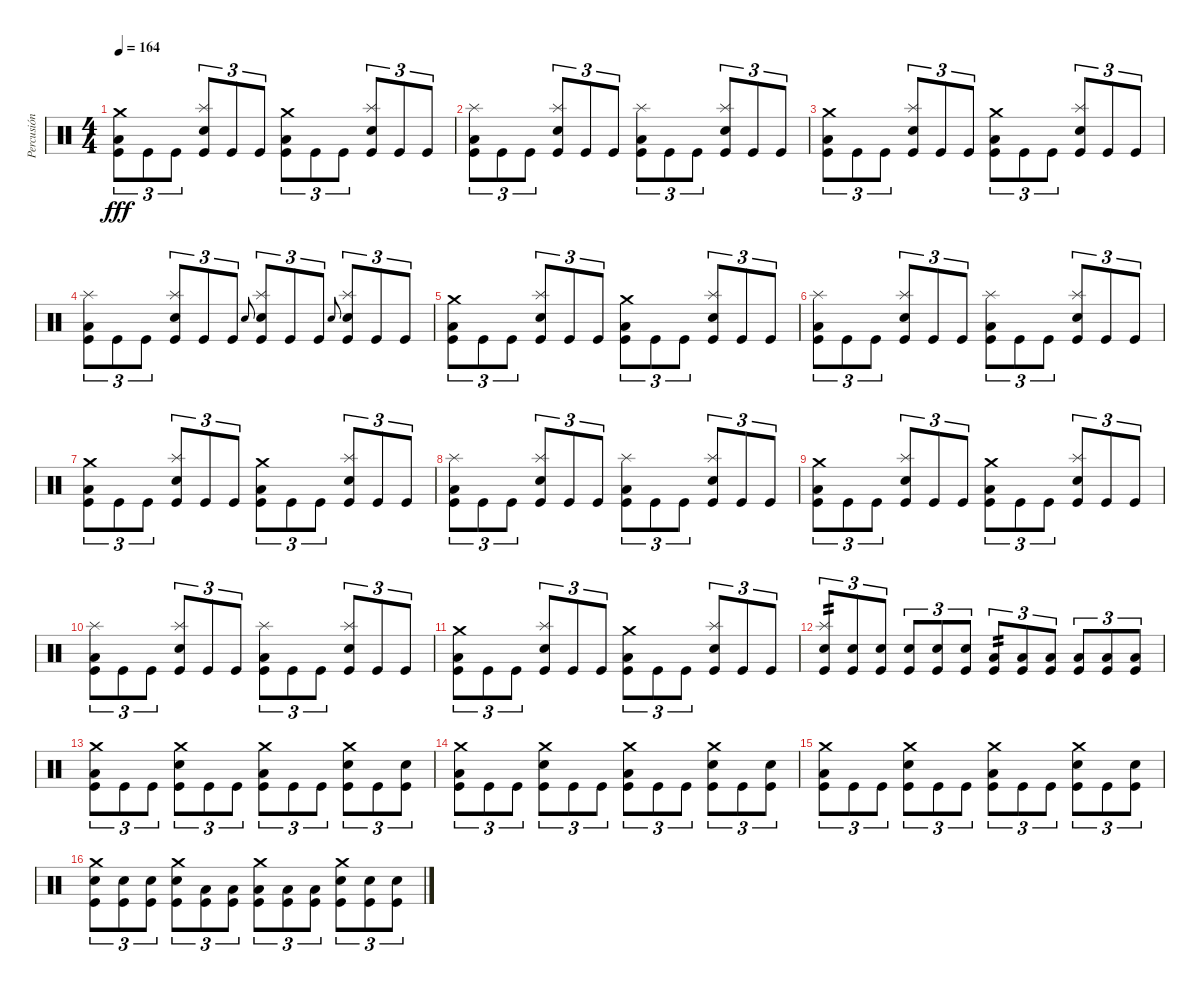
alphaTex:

\track ("Percusión" "Percusión") {instrument percussion}
\staff {score}
\articulation defaults
\ts (4 4)
\tempo 164
\clef neutral
\ks c
("Crash medium (hit)" "Low Floor Tom (hit)" "Kick (hit)").8{tu (3 2) dy fff} "Kick (hit)".8{tu (3 2)} "Kick (hit)".8{tu (3 2)} ("Splash (hit)" "Snare (hit) 2" "Kick (hit)").8{tu (3 2)} "Kick (hit)".8{tu (3 2)} "Kick (hit)".8{tu (3 2)} ("Crash medium (hit)" "Low Floor Tom (hit)" "Kick (hit)").8{tu (3 2)} "Kick (hit)".8{tu (3 2)} "Kick (hit)".8{tu (3 2)} ("Splash (hit)" "Snare (hit) 2" "Kick (hit)").8{tu (3 2)} "Kick (hit)".8{tu (3 2)} "Kick (hit)".8{tu (3 2)} |
("Splash (hit)" "Low Floor Tom (hit)" "Kick (hit)").8{tu (3 2)} "Kick (hit)".8{tu (3 2)} "Kick (hit)".8{tu (3 2)} ("Splash (hit)" "Snare (hit) 2" "Kick (hit)").8{tu (3 2)} "Kick (hit)".8{tu (3 2)} "Kick (hit)".8{tu (3 2)} ("Splash (hit)" "Low Floor Tom (hit)" "Kick (hit)").8{tu (3 2)} "Kick (hit)".8{tu (3 2)} "Kick (hit)".8{tu (3 2)} ("Splash (hit)" "Snare (hit) 2" "Kick (hit)").8{tu (3 2)} "Kick (hit)".8{tu (3 2)} "Kick (hit)".8{tu (3 2)} |
("Crash medium (hit)" "Low Floor Tom (hit)" "Kick (hit)").8{tu (3 2)} "Kick (hit)".8{tu (3 2)} "Kick (hit)".8{tu (3 2)} ("Splash (hit)" "Snare (hit) 2" "Kick (hit)").8{tu (3 2)} "Kick (hit)".8{tu (3 2)} "Kick (hit)".8{tu (3 2)} ("Crash medium (hit)" "Low Floor Tom (hit)" "Kick (hit)").8{tu (3 2)} "Kick (hit)".8{tu (3 2)} "Kick (hit)".8{tu (3 2)} ("Splash (hit)" "Snare (hit) 2" "Kick (hit)").8{tu (3 2)} "Kick (hit)".8{tu (3 2)} "Kick (hit)".8{tu (3 2)} |
("Splash (hit)" "Low Floor Tom (hit)" "Kick (hit)").8{tu (3 2)} "Kick (hit)".8{tu (3 2)} "Kick (hit)".8{tu (3 2)} ("Splash (hit)" "Snare (hit) 2" "Kick (hit)").8{tu (3 2)} "Kick (hit)".8{tu (3 2)} "Kick (hit)".8{tu (3 2)} "Snare (hit) 2".8{gr onbeat} ("Splash (hit)" "Snare (hit) 2" "Kick (hit)").8{tu (3 2)} "Kick (hit)".8{tu (3 2)} "Kick (hit)".8{tu (3 2)} "Snare (hit) 2".8{gr onbeat} ("Splash (hit)" "Snare (hit) 2" "Kick (hit)").8{tu (3 2)} "Kick (hit)".8{tu (3 2)} "Kick (hit)".8{tu (3 2)} |
("Crash medium (hit)" "Low Floor Tom (hit)" "Kick (hit)").8{tu (3 2)} "Kick (hit)".8{tu (3 2)} "Kick (hit)".8{tu (3 2)} ("Splash (hit)" "Snare (hit) 2" "Kick (hit)").8{tu (3 2)} "Kick (hit)".8{tu (3 2)} "Kick (hit)".8{tu (3 2)} ("Crash medium (hit)" "Low Floor Tom (hit)" "Kick (hit)").8{tu (3 2)} "Kick (hit)".8{tu (3 2)} "Kick (hit)".8{tu (3 2)} ("Splash (hit)" "Snare (hit) 2" "Kick (hit)").8{tu (3 2)} "Kick (hit)".8{tu (3 2)} "Kick (hit)".8{tu (3 2)} |
("Splash (hit)" "Low Floor Tom (hit)" "Kick (hit)").8{tu (3 2)} "Kick (hit)".8{tu (3 2)} "Kick (hit)".8{tu (3 2)} ("Splash (hit)" "Snare (hit) 2" "Kick (hit)").8{tu (3 2)} "Kick (hit)".8{tu (3 2)} "Kick (hit)".8{tu (3 2)} ("Splash (hit)" "Low Floor Tom (hit)" "Kick (hit)").8{tu (3 2)} "Kick (hit)".8{tu (3 2)} "Kick (hit)".8{tu (3 2)} ("Splash (hit)" "Snare (hit) 2" "Kick (hit)").8{tu (3 2)} "Kick (hit)".8{tu (3 2)} "Kick (hit)".8{tu (3 2)} |
("Crash medium (hit)" "Low Floor Tom (hit)" "Kick (hit)").8{tu (3 2)} "Kick (hit)".8{tu (3 2)} "Kick (hit)".8{tu (3 2)} ("Splash (hit)" "Snare (hit) 2" "Kick (hit)").8{tu (3 2)} "Kick (hit)".8{tu (3 2)} "Kick (hit)".8{tu (3 2)} ("Crash medium (hit)" "Low Floor Tom (hit)" "Kick (hit)").8{tu (3 2)} "Kick (hit)".8{tu (3 2)} "Kick (hit)".8{tu (3 2)} ("Splash (hit)" "Snare (hit) 2" "Kick (hit)").8{tu (3 2)} "Kick (hit)".8{tu (3 2)} "Kick (hit)".8{tu (3 2)} |
("Splash (hit)" "Low Floor Tom (hit)" "Kick (hit)").8{tu (3 2)} "Kick (hit)".8{tu (3 2)} "Kick (hit)".8{tu (3 2)} ("Splash (hit)" "Snare (hit) 2" "Kick (hit)").8{tu (3 2)} "Kick (hit)".8{tu (3 2)} "Kick (hit)".8{tu (3 2)} ("Splash (hit)" "Low Floor Tom (hit)" "Kick (hit)").8{tu (3 2)} "Kick (hit)".8{tu (3 2)} "Kick (hit)".8{tu (3 2)} ("Splash (hit)" "Snare (hit) 2" "Kick (hit)").8{tu (3 2)} "Kick (hit)".8{tu (3 2)} "Kick (hit)".8{tu (3 2)} |
("Crash medium (hit)" "Low Floor Tom (hit)" "Kick (hit)").8{tu (3 2)} "Kick (hit)".8{tu (3 2)} "Kick (hit)".8{tu (3 2)} ("Splash (hit)" "Snare (hit) 2" "Kick (hit)").8{tu (3 2)} "Kick (hit)".8{tu (3 2)} "Kick (hit)".8{tu (3 2)} ("Crash medium (hit)" "Low Floor Tom (hit)" "Kick (hit)").8{tu (3 2)} "Kick (hit)".8{tu (3 2)} "Kick (hit)".8{tu (3 2)} ("Splash (hit)" "Snare (hit) 2" "Kick (hit)").8{tu (3 2)} "Kick (hit)".8{tu (3 2)} "Kick (hit)".8{tu (3 2)} |
("Splash (hit)" "Low Floor Tom (hit)" "Kick (hit)").8{tu (3 2)} "Kick (hit)".8{tu (3 2)} "Kick (hit)".8{tu (3 2)} ("Splash (hit)" "Snare (hit) 2" "Kick (hit)").8{tu (3 2)} "Kick (hit)".8{tu (3 2)} "Kick (hit)".8{tu (3 2)} ("Splash (hit)" "Low Floor Tom (hit)" "Kick (hit)").8{tu (3 2)} "Kick (hit)".8{tu (3 2)} "Kick (hit)".8{tu (3 2)} ("Splash (hit)" "Snare (hit) 2" "Kick (hit)").8{tu (3 2)} "Kick (hit)".8{tu (3 2)} "Kick (hit)".8{tu (3 2)} |
("Crash medium (hit)" "Low Floor Tom (hit)" "Kick (hit)").8{tu (3 2)} "Kick (hit)".8{tu (3 2)} "Kick (hit)".8{tu (3 2)} ("Splash (hit)" "Snare (hit) 2" "Kick (hit)").8{tu (3 2)} "Kick (hit)".8{tu (3 2)} "Kick (hit)".8{tu (3 2)} ("Crash medium (hit)" "Low Floor Tom (hit)" "Kick (hit)").8{tu (3 2)} "Kick (hit)".8{tu (3 2)} "Kick (hit)".8{tu (3 2)} ("Splash (hit)" "Snare (hit) 2" "Kick (hit)").8{tu (3 2)} "Kick (hit)".8{tu (3 2)} "Kick (hit)".8{tu (3 2)} |
("Splash (hit)" "Snare (hit) 2" "Kick (hit)").8{tu (3 2) tp 2} ("Snare (hit) 2" "Kick (hit)").8{tu (3 2)} ("Snare (hit) 2" "Kick (hit)").8{tu (3 2)} ("Snare (hit) 2" "Kick (hit)").8{tu (3 2)} ("Snare (hit) 2" "Kick (hit)").8{tu (3 2)} ("Snare (hit) 2" "Kick (hit)").8{tu (3 2)} ("Low Floor Tom (hit)" "Kick (hit)").8{tu (3 2) tp 2} ("Low Floor Tom (hit)" "Kick (hit)").8{tu (3 2)} ("Low Floor Tom (hit)" "Kick (hit)").8{tu (3 2)} ("Low Floor Tom (hit)" "Kick (hit)").8{tu (3 2)} ("Low Floor Tom (hit)" "Kick (hit)").8{tu (3 2)} ("Low Floor Tom (hit)" "Kick (hit)").8{tu (3 2)} |
("Crash medium (hit)" "Low Floor Tom (hit)" "Kick (hit)").8{tu (3 2)} "Kick (hit)".8{tu (3 2)} "Kick (hit)".8{tu (3 2)} ("Crash medium (hit)" "Snare (hit) 2" "Kick (hit)").8{tu (3 2)} "Kick (hit)".8{tu (3 2)} "Kick (hit)".8{tu (3 2)} ("Crash medium (hit)" "Low Floor Tom (hit)" "Kick (hit)").8{tu (3 2)} "Kick (hit)".8{tu (3 2)} "Kick (hit)".8{tu (3 2)} ("Crash medium (hit)" "Snare (hit) 2" "Kick (hit)").8{tu (3 2)} "Kick (hit)".8{tu (3 2)} ("Snare (hit) 2" "Kick (hit)").8{tu (3 2)} |
("Crash medium (hit)" "Low Floor Tom (hit)" "Kick (hit)").8{tu (3 2)} "Kick (hit)".8{tu (3 2)} "Kick (hit)".8{tu (3 2)} ("Crash medium (hit)" "Snare (hit) 2" "Kick (hit)").8{tu (3 2)} "Kick (hit)".8{tu (3 2)} "Kick (hit)".8{tu (3 2)} ("Crash medium (hit)" "Low Floor Tom (hit)" "Kick (hit)").8{tu (3 2)} "Kick (hit)".8{tu (3 2)} "Kick (hit)".8{tu (3 2)} ("Crash medium (hit)" "Snare (hit) 2" "Kick (hit)").8{tu (3 2)} "Kick (hit)".8{tu (3 2)} ("Snare (hit) 2" "Kick (hit)").8{tu (3 2)} |
("Crash medium (hit)" "Low Floor Tom (hit)" "Kick (hit)").8{tu (3 2)} "Kick (hit)".8{tu (3 2)} "Kick (hit)".8{tu (3 2)} ("Crash medium (hit)" "Snare (hit) 2" "Kick (hit)").8{tu (3 2)} "Kick (hit)".8{tu (3 2)} "Kick (hit)".8{tu (3 2)} ("Crash medium (hit)" "Low Floor Tom (hit)" "Kick (hit)").8{tu (3 2)} "Kick (hit)".8{tu (3 2)} "Kick (hit)".8{tu (3 2)} ("Crash medium (hit)" "Snare (hit) 2" "Kick (hit)").8{tu (3 2)} "Kick (hit)".8{tu (3 2)} ("Snare (hit) 2" "Kick (hit)").8{tu (3 2)} |
("Crash medium (hit)" "Snare (hit) 2" "Kick (hit)").8{tu (3 2)} ("Snare (hit) 2" "Kick (hit)").8{tu (3 2)} ("Snare (hit) 2" "Kick (hit)").8{tu (3 2)} ("Crash medium (hit)" "Snare (hit) 2" "Kick (hit)").8{tu (3 2)} ("Low Floor Tom (hit)" "Kick (hit)").8{tu (3 2)} ("Low Floor Tom (hit)" "Kick (hit)").8{tu (3 2)} ("Crash medium (hit)" "Low Floor Tom (hit)" "Kick (hit)").8{tu (3 2)} ("Low Floor Tom (hit)" "Kick (hit)").8{tu (3 2)} ("Low Floor Tom (hit)" "Kick (hit)").8{tu (3 2)} ("Crash medium (hit)" "Snare (hit) 2" "Kick (hit)").8{tu (3 2)} ("Snare (hit) 2" "Kick (hit)").8{tu (3 2)} ("Snare (hit) 2" "Kick (hit)").8{tu (3 2)}
